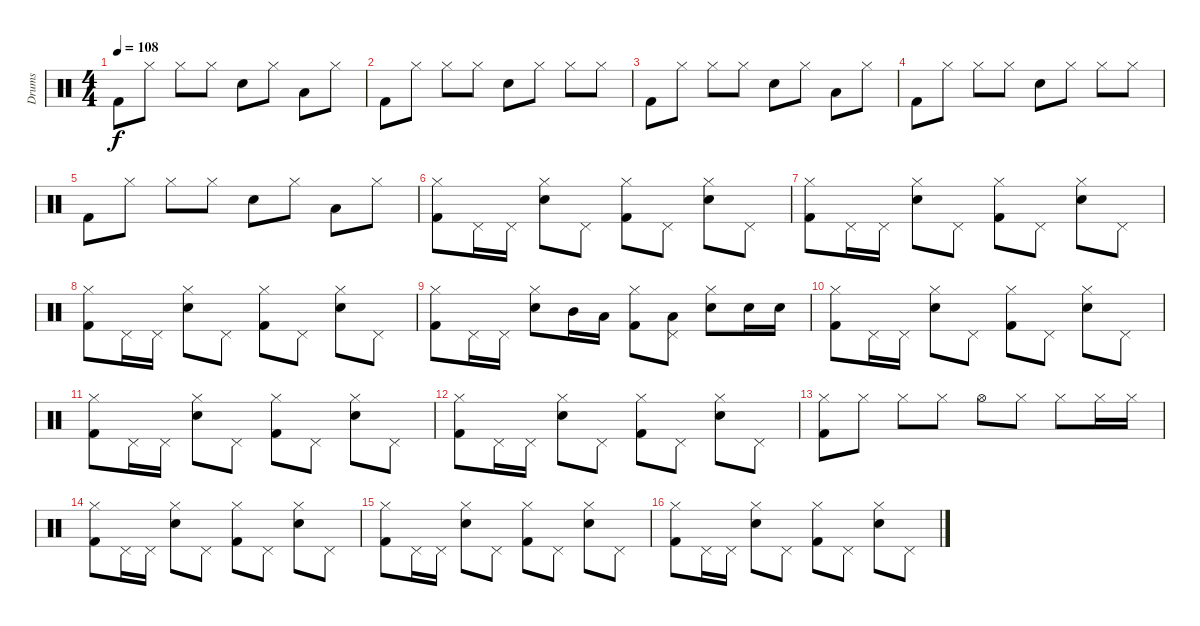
\track ("Drums" "Drums") {instrument percussion}
\staff {score}
\articulation defaults
\ts (4 4)
\tempo 108
\clef neutral
\ks c "Kick (hit) 2".8{dy f} "Hi-Hat (closed)".8 "Hi-Hat (closed)".8 "Hi-Hat (closed)".8 "Electric Snare (hit)".8 "Hi-Hat (closed)".8 "Low Tom (hit)".8 "Hi-Hat (closed)".8
|
"Kick (hit) 2".8 "Hi-Hat (closed)".8 "Hi-Hat (closed)".8 "Hi-Hat (closed)".8 "Electric Snare (hit)".8 "Hi-Hat (closed)".8 "Hi-Hat (closed)".8 "Hi-Hat (closed)".8 |
"Kick (hit) 2".8 "Hi-Hat (closed)".8 "Hi-Hat (closed)".8 "Hi-Hat (closed)".8 "Electric Snare (hit)".8 "Hi-Hat (closed)".8 "Low Tom (hit)".8 "Hi-Hat (closed)".8 |
"Kick (hit) 2".8 "Hi-Hat (closed)".8 "Hi-Hat (closed)".8 "Hi-Hat (closed)".8 "Electric Snare (hit)".8 "Hi-Hat (closed)".8 "Hi-Hat (closed)".8 "Hi-Hat (closed)".8 |
"Kick (hit) 2".8 "Hi-Hat (closed)".8 "Hi-Hat (closed)".8 "Hi-Hat (closed)".8 "Electric Snare (hit)".8 "Hi-Hat (closed)".8 "Low Tom (hit)".8 "Hi-Hat (closed)".8 |
("Hi-Hat (closed)" "Kick (hit) 2").8 "Pedal Hi-Hat (hit)".16 "Pedal Hi-Hat (hit)".16 ("Hi-Hat (closed)" "Electric Snare (hit)").8 "Pedal Hi-Hat (hit)".8 ("Hi-Hat (closed)" "Kick (hit) 2").8 "Pedal Hi-Hat (hit)".8 ("Hi-Hat (closed)" "Electric Snare (hit)").8 "Pedal Hi-Hat (hit)".8 |
("Hi-Hat (closed)" "Kick (hit) 2").8 "Pedal Hi-Hat (hit)".16 "Pedal Hi-Hat (hit)".16 ("Hi-Hat (closed)" "Electric Snare (hit)").8 "Pedal Hi-Hat (hit)".8 ("Hi-Hat (closed)" "Kick (hit) 2").8 "Pedal Hi-Hat (hit)".8 ("Hi-Hat (closed)" "Electric Snare (hit)").8 "Pedal Hi-Hat (hit)".8 |
("Hi-Hat (closed)" "Kick (hit) 2").8 "Pedal Hi-Hat (hit)".16 "Pedal Hi-Hat (hit)".16 ("Hi-Hat (closed)" "Electric Snare (hit)").8 "Pedal Hi-Hat (hit)".8 ("Hi-Hat (closed)" "Kick (hit) 2").8 "Pedal Hi-Hat (hit)".8 ("Hi-Hat (closed)" "Electric Snare (hit)").8 "Pedal Hi-Hat (hit)".8 |
("Hi-Hat (closed)" "Kick (hit) 2").8 "Pedal Hi-Hat (hit)".16 "Pedal Hi-Hat (hit)".16 ("Hi-Hat (closed)" "Electric Snare (hit)").8 "Mid Tom (hit)".16 "Low Tom (hit)".16 ("Hi-Hat (closed)" "Kick (hit) 2").8 ("Pedal Hi-Hat (hit)" "Low Tom (hit)").8 ("Hi-Hat (closed)" "Electric Snare (hit)").8 "Electric Snare (hit)".16 "Electric Snare (hit)".16 |
("Hi-Hat (closed)" "Kick (hit) 2").8 "Pedal Hi-Hat (hit)".16 "Pedal Hi-Hat (hit)".16 ("Hi-Hat (closed)" "Electric Snare (hit)").8 "Pedal Hi-Hat (hit)".8 ("Hi-Hat (closed)" "Kick (hit) 2").8 "Pedal Hi-Hat (hit)".8 ("Hi-Hat (closed)" "Electric Snare (hit)").8 "Pedal Hi-Hat (hit)".8 |
("Hi-Hat (closed)" "Kick (hit) 2").8 "Pedal Hi-Hat (hit)".16 "Pedal Hi-Hat (hit)".16 ("Hi-Hat (closed)" "Electric Snare (hit)").8 "Pedal Hi-Hat (hit)".8 ("Hi-Hat (closed)" "Kick (hit) 2").8 "Pedal Hi-Hat (hit)".8 ("Hi-Hat (closed)" "Electric Snare (hit)").8 "Pedal Hi-Hat (hit)".8 |
("Hi-Hat (closed)" "Kick (hit) 2").8 "Pedal Hi-Hat (hit)".16 "Pedal Hi-Hat (hit)".16 ("Hi-Hat (closed)" "Electric Snare (hit)").8 "Pedal Hi-Hat (hit)".8 ("Hi-Hat (closed)" "Kick (hit) 2").8 "Pedal Hi-Hat (hit)".8 ("Hi-Hat (closed)" "Electric Snare (hit)").8 "Pedal Hi-Hat (hit)".8 |
("Hi-Hat (closed)" "Kick (hit) 2").8 "Hi-Hat (closed)".8 "Hi-Hat (closed)".8 "Hi-Hat (closed)".8 "Hi-Hat (open)".8 "Hi-Hat (closed)".8 "Hi-Hat (closed)".8 "Hi-Hat (closed)".16 "Hi-Hat (closed)".16 |
("Hi-Hat (closed)" "Kick (hit) 2").8 "Pedal Hi-Hat (hit)".16 "Pedal Hi-Hat (hit)".16 ("Hi-Hat (closed)" "Electric Snare (hit)").8 "Pedal Hi-Hat (hit)".8 ("Hi-Hat (closed)" "Kick (hit) 2").8 "Pedal Hi-Hat (hit)".8 ("Hi-Hat (closed)" "Electric Snare (hit)").8 "Pedal Hi-Hat (hit)".8 |
("Hi-Hat (closed)" "Kick (hit) 2").8 "Pedal Hi-Hat (hit)".16 "Pedal Hi-Hat (hit)".16 ("Hi-Hat (closed)" "Electric Snare (hit)").8 "Pedal Hi-Hat (hit)".8 ("Hi-Hat (closed)" "Kick (hit) 2").8 "Pedal Hi-Hat (hit)".8 ("Hi-Hat (closed)" "Electric Snare (hit)").8 "Pedal Hi-Hat (hit)".8 |
("Hi-Hat (closed)" "Kick (hit) 2").8 "Pedal Hi-Hat (hit)".16 "Pedal Hi-Hat (hit)".16 ("Hi-Hat (closed)" "Electric Snare (hit)").8 "Pedal Hi-Hat (hit)".8 ("Hi-Hat (closed)" "Kick (hit) 2").8 "Pedal Hi-Hat (hit)".8 ("Hi-Hat (closed)" "Electric Snare (hit)").8 "Pedal Hi-Hat (hit)".8
